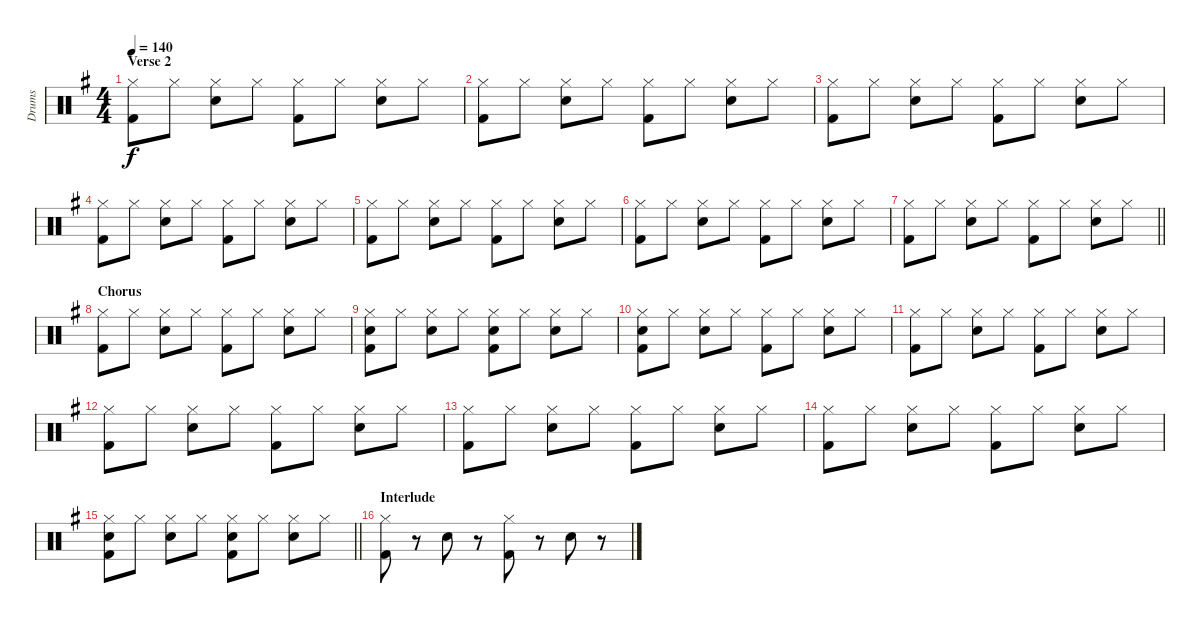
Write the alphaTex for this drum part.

\track ("Drums" "Drums") {instrument percussion}
\staff {score}
\articulation defaults
\ts (4 4)
\section ("" "Verse 2")
\tempo 140
\clef neutral
\ks g
("Hi-Hat (closed)" "Kick (hit) 2").8{dy f} "Hi-Hat (closed)".8 ("Hi-Hat (closed)" "Snare (hit) 2").8 "Hi-Hat (closed)".8 ("Hi-Hat (closed)" "Kick (hit) 2").8 "Hi-Hat (closed)".8 ("Hi-Hat (closed)" "Snare (hit) 2").8 "Hi-Hat (closed)".8 |
("Hi-Hat (closed)" "Kick (hit) 2").8 "Hi-Hat (closed)".8 ("Hi-Hat (closed)" "Snare (hit) 2").8 "Hi-Hat (closed)".8 ("Hi-Hat (closed)" "Kick (hit) 2").8 "Hi-Hat (closed)".8 ("Hi-Hat (closed)" "Snare (hit) 2").8 "Hi-Hat (closed)".8 |
("Hi-Hat (closed)" "Kick (hit) 2").8 "Hi-Hat (closed)".8 ("Hi-Hat (closed)" "Snare (hit) 2").8 "Hi-Hat (closed)".8 ("Hi-Hat (closed)" "Kick (hit) 2").8 "Hi-Hat (closed)".8 ("Hi-Hat (closed)" "Snare (hit) 2").8 "Hi-Hat (closed)".8 |
("Hi-Hat (closed)" "Kick (hit) 2").8 "Hi-Hat (closed)".8 ("Hi-Hat (closed)" "Snare (hit) 2").8 "Hi-Hat (closed)".8 ("Hi-Hat (closed)" "Kick (hit) 2").8 "Hi-Hat (closed)".8 ("Hi-Hat (closed)" "Snare (hit) 2").8 "Hi-Hat (closed)".8 |
("Hi-Hat (closed)" "Kick (hit) 2").8 "Hi-Hat (closed)".8 ("Hi-Hat (closed)" "Snare (hit) 2").8 "Hi-Hat (closed)".8 ("Hi-Hat (closed)" "Kick (hit) 2").8 "Hi-Hat (closed)".8 ("Hi-Hat (closed)" "Snare (hit) 2").8 "Hi-Hat (closed)".8 |
("Hi-Hat (closed)" "Kick (hit) 2").8 "Hi-Hat (closed)".8 ("Hi-Hat (closed)" "Snare (hit) 2").8 "Hi-Hat (closed)".8 ("Hi-Hat (closed)" "Kick (hit) 2").8 "Hi-Hat (closed)".8 ("Hi-Hat (closed)" "Snare (hit) 2").8 "Hi-Hat (closed)".8 |
\barLineRight lightlight
("Hi-Hat (closed)" "Kick (hit) 2").8 "Hi-Hat (closed)".8 ("Hi-Hat (closed)" "Snare (hit) 2").8 "Hi-Hat (closed)".8 ("Hi-Hat (closed)" "Kick (hit) 2").8 "Hi-Hat (closed)".8 ("Hi-Hat (closed)" "Snare (hit) 2").8 "Hi-Hat (closed)".8 |
\section ("" "Chorus")
("Hi-Hat (closed)" "Kick (hit) 2").8 "Hi-Hat (closed)".8 ("Hi-Hat (closed)" "Snare (hit) 2").8 "Hi-Hat (closed)".8 ("Hi-Hat (closed)" "Kick (hit) 2").8 "Hi-Hat (closed)".8 ("Hi-Hat (closed)" "Snare (hit) 2").8 "Hi-Hat (closed)".8 |
("Hi-Hat (closed)" "Snare (hit) 2" "Kick (hit) 2").8 "Hi-Hat (closed)".8 ("Hi-Hat (closed)" "Snare (hit) 2").8 "Hi-Hat (closed)".8 ("Hi-Hat (closed)" "Snare (hit) 2" "Kick (hit) 2").8 "Hi-Hat (closed)".8 ("Hi-Hat (closed)" "Snare (hit) 2").8 "Hi-Hat (closed)".8 |
("Hi-Hat (closed)" "Snare (hit) 2" "Kick (hit) 2").8 "Hi-Hat (closed)".8 ("Hi-Hat (closed)" "Snare (hit) 2").8 "Hi-Hat (closed)".8 ("Hi-Hat (closed)" "Kick (hit) 2").8 "Hi-Hat (closed)".8 ("Hi-Hat (closed)" "Snare (hit) 2").8 "Hi-Hat (closed)".8 |
("Hi-Hat (closed)" "Kick (hit) 2").8 "Hi-Hat (closed)".8 ("Hi-Hat (closed)" "Snare (hit) 2").8 "Hi-Hat (closed)".8 ("Hi-Hat (closed)" "Kick (hit) 2").8 "Hi-Hat (closed)".8 ("Hi-Hat (closed)" "Snare (hit) 2").8 "Hi-Hat (closed)".8 |
("Hi-Hat (closed)" "Kick (hit) 2").8 "Hi-Hat (closed)".8 ("Hi-Hat (closed)" "Snare (hit) 2").8 "Hi-Hat (closed)".8 ("Hi-Hat (closed)" "Kick (hit) 2").8 "Hi-Hat (closed)".8 ("Hi-Hat (closed)" "Snare (hit) 2").8 "Hi-Hat (closed)".8 |
("Hi-Hat (closed)" "Kick (hit) 2").8 "Hi-Hat (closed)".8 ("Hi-Hat (closed)" "Snare (hit) 2").8 "Hi-Hat (closed)".8 ("Hi-Hat (closed)" "Kick (hit) 2").8 "Hi-Hat (closed)".8 ("Hi-Hat (closed)" "Snare (hit) 2").8 "Hi-Hat (closed)".8 |
("Hi-Hat (closed)" "Kick (hit) 2").8 "Hi-Hat (closed)".8 ("Hi-Hat (closed)" "Snare (hit) 2").8 "Hi-Hat (closed)".8 ("Hi-Hat (closed)" "Kick (hit) 2").8 "Hi-Hat (closed)".8 ("Hi-Hat (closed)" "Snare (hit) 2").8 "Hi-Hat (closed)".8 |
\barLineRight lightlight
("Hi-Hat (closed)" "Snare (hit) 2" "Kick (hit) 2").8 "Hi-Hat (closed)".8 ("Hi-Hat (closed)" "Snare (hit) 2").8 "Hi-Hat (closed)".8 ("Hi-Hat (closed)" "Snare (hit) 2" "Kick (hit) 2").8 "Hi-Hat (closed)".8 ("Hi-Hat (closed)" "Snare (hit) 2").8 "Hi-Hat (closed)".8 |
\section ("" "Interlude")
("Hi-Hat (closed)" "Kick (hit) 2").8 r.8 "Snare (hit) 2".8 r.8 ("Hi-Hat (closed)" "Kick (hit) 2").8 r.8 "Snare (hit) 2".8 r.8
